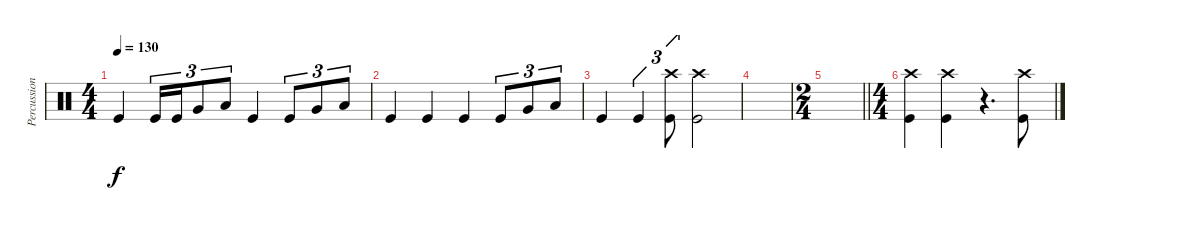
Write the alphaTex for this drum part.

\track ("Percussioni" "Percussion") {instrument percussion}
\staff {score}
\articulation defaults
\ts (4 4)
\tempo 130
\clef neutral
\ks c "Kick (hit)".4{dy f} "Kick (hit)".16{tu (3 2)} "Kick (hit)".16{tu (3 2)} "Very Low Tom (hit)".8{tu (3 2) balance 11} "Low Floor Tom (hit)".8{tu (3 2) balance 8} "Kick (hit)".4 "Kick (hit)".8{tu (3 2)} "Very Low Tom (hit)".8{tu (3 2) balance 11} "Low Floor Tom (hit)".8{tu (3 2) balance 8}
|
"Kick (hit)".4 "Kick (hit)".4 "Kick (hit)".4 "Kick (hit)".8{tu (3 2)} "Very Low Tom (hit)".8{tu (3 2) balance 11} "Low Floor Tom (hit)".8{tu (3 2) balance 8} |
"Kick (hit)".4 "Kick (hit)".4{tu (3 2)} ("Kick (hit)" "Crash high (hit)").8{tu (3 2) balance 8} ("Kick (hit)" "Crash high (hit)").2 |
|
\ts (2 4)
\barLineRight lightlight
|
\ts (4 4)
("Kick (hit)" "Crash high (hit)").4 ("Kick (hit)" "Crash high (hit)").4 r.4{d} ("Kick (hit)" "Crash high (hit)").8
